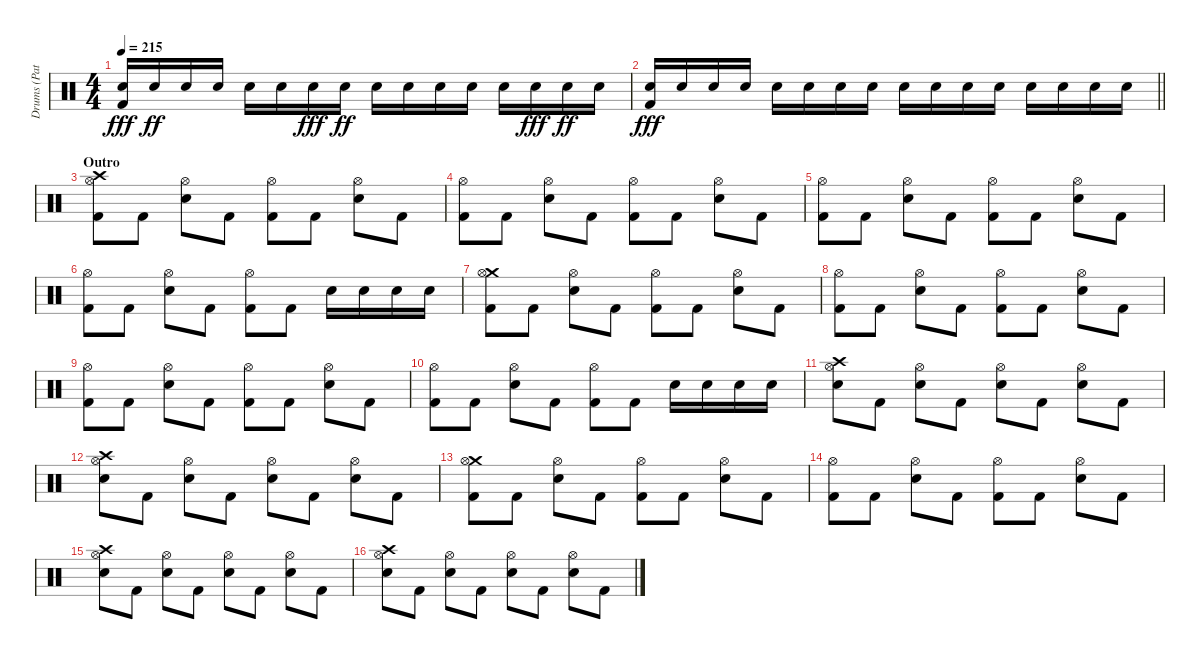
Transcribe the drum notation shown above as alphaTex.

\track ("Drums (Pat Thetic)" "Drums (Pat") {instrument percussion}
\staff {score}
\articulation defaults
\ts (4 4)
\tempo 215
\clef neutral
\ks c
("Snare (hit) 2" "Kick (hit) 2").16{dy fff} "Electric Snare (hit)".16{dy ff} "Electric Snare (hit)".16 "Electric Snare (hit)".16 "Electric Snare (hit)".16 "Electric Snare (hit)".16 "Snare (hit) 2".16{dy fff} "Electric Snare (hit)".16{dy ff} "Electric Snare (hit)".16 "Electric Snare (hit)".16 "Electric Snare (hit)".16 "Electric Snare (hit)".16 "Electric Snare (hit)".16 "Snare (hit) 2".16{dy fff} "Electric Snare (hit)".16{dy ff} "Electric Snare (hit)".16 |
\barLineRight lightlight
("Snare (hit) 2" "Kick (hit) 2").16{dy fff} "Snare (hit) 2".16 "Snare (hit) 2".16 "Snare (hit) 2".16 "Snare (hit) 2".16 "Snare (hit) 2".16 "Electric Snare (hit)".16 "Snare (hit) 2".16 "Snare (hit) 2".16 "Snare (hit) 2".16 "Snare (hit) 2".16 "Snare (hit) 2".16 "Snare (hit) 2".16 "Electric Snare (hit)".16 "Snare (hit) 2".16 "Snare (hit) 2".16 |
\section ("" "Outro")
("Crash high (hit)" "Hi-Hat (open)" "Kick (hit) 2").8 "Kick (hit) 2".8 ("Hi-Hat (open)" "Snare (hit) 2").8 "Kick (hit) 2".8 ("Hi-Hat (open)" "Kick (hit) 2").8 "Kick (hit) 2".8 ("Hi-Hat (open)" "Snare (hit) 2").8 "Kick (hit) 2".8 |
("Hi-Hat (open)" "Kick (hit) 2").8 "Kick (hit) 2".8 ("Hi-Hat (open)" "Snare (hit) 2").8 "Kick (hit) 2".8 ("Hi-Hat (open)" "Kick (hit) 2").8 "Kick (hit) 2".8 ("Hi-Hat (open)" "Snare (hit) 2").8 "Kick (hit) 2".8 |
("Hi-Hat (open)" "Kick (hit) 2").8 "Kick (hit) 2".8 ("Hi-Hat (open)" "Snare (hit) 2").8 "Kick (hit) 2".8 ("Hi-Hat (open)" "Kick (hit) 2").8 "Kick (hit) 2".8 ("Hi-Hat (open)" "Snare (hit) 2").8 "Kick (hit) 2".8 |
("Hi-Hat (open)" "Kick (hit) 2").8 "Kick (hit) 2".8 ("Hi-Hat (open)" "Snare (hit) 2").8 "Kick (hit) 2".8 ("Hi-Hat (open)" "Kick (hit) 2").8 "Kick (hit) 2".8 "Snare (hit) 2".16 "Snare (hit) 2".16 "Snare (hit) 2".16 "Snare (hit) 2".16 |
("Crash medium (hit)" "Hi-Hat (open)" "Kick (hit) 2").8 "Kick (hit) 2".8 ("Hi-Hat (open)" "Snare (hit) 2").8 "Kick (hit) 2".8 ("Hi-Hat (open)" "Kick (hit) 2").8 "Kick (hit) 2".8 ("Hi-Hat (open)" "Snare (hit) 2").8 "Kick (hit) 2".8 |
("Hi-Hat (open)" "Kick (hit) 2").8 "Kick (hit) 2".8 ("Hi-Hat (open)" "Snare (hit) 2").8 "Kick (hit) 2".8 ("Hi-Hat (open)" "Kick (hit) 2").8 "Kick (hit) 2".8 ("Hi-Hat (open)" "Snare (hit) 2").8 "Kick (hit) 2".8 |
("Hi-Hat (open)" "Kick (hit) 2").8 "Kick (hit) 2".8 ("Hi-Hat (open)" "Snare (hit) 2").8 "Kick (hit) 2".8 ("Hi-Hat (open)" "Kick (hit) 2").8 "Kick (hit) 2".8 ("Hi-Hat (open)" "Snare (hit) 2").8 "Kick (hit) 2".8 |
("Hi-Hat (open)" "Kick (hit) 2").8 "Kick (hit) 2".8 ("Hi-Hat (open)" "Snare (hit) 2").8 "Kick (hit) 2".8 ("Hi-Hat (open)" "Kick (hit) 2").8 "Kick (hit) 2".8 "Snare (hit) 2".16 "Snare (hit) 2".16 "Snare (hit) 2".16 "Snare (hit) 2".16 |
("Crash high (hit)" "Hi-Hat (open)" "Snare (hit) 2").8 "Kick (hit) 2".8 ("Hi-Hat (open)" "Snare (hit) 2").8 "Kick (hit) 2".8 ("Hi-Hat (open)" "Snare (hit) 2").8 "Kick (hit) 2".8 ("Hi-Hat (open)" "Snare (hit) 2").8 "Kick (hit) 2".8 |
("Crash high (hit)" "Hi-Hat (open)" "Snare (hit) 2").8 "Kick (hit) 2".8 ("Hi-Hat (open)" "Snare (hit) 2").8 "Kick (hit) 2".8 ("Hi-Hat (open)" "Snare (hit) 2").8 "Kick (hit) 2".8 ("Hi-Hat (open)" "Snare (hit) 2").8 "Kick (hit) 2".8 |
("Crash medium (hit)" "Hi-Hat (open)" "Kick (hit) 2").8 "Kick (hit) 2".8 ("Hi-Hat (open)" "Snare (hit) 2").8 "Kick (hit) 2".8 ("Hi-Hat (open)" "Kick (hit) 2").8 "Kick (hit) 2".8 ("Hi-Hat (open)" "Snare (hit) 2").8 "Kick (hit) 2".8 |
("Hi-Hat (open)" "Kick (hit) 2").8 "Kick (hit) 2".8 ("Hi-Hat (open)" "Snare (hit) 2").8 "Kick (hit) 2".8 ("Hi-Hat (open)" "Kick (hit) 2").8 "Kick (hit) 2".8 ("Hi-Hat (open)" "Snare (hit) 2").8 "Kick (hit) 2".8 |
("Crash high (hit)" "Hi-Hat (open)" "Snare (hit) 2").8 "Kick (hit) 2".8 ("Hi-Hat (open)" "Snare (hit) 2").8 "Kick (hit) 2".8 ("Hi-Hat (open)" "Snare (hit) 2").8 "Kick (hit) 2".8 ("Hi-Hat (open)" "Snare (hit) 2").8 "Kick (hit) 2".8 |
("Crash high (hit)" "Hi-Hat (open)" "Snare (hit) 2").8 "Kick (hit) 2".8 ("Hi-Hat (open)" "Snare (hit) 2").8 "Kick (hit) 2".8 ("Hi-Hat (open)" "Snare (hit) 2").8 "Kick (hit) 2".8 ("Hi-Hat (open)" "Snare (hit) 2").8 "Kick (hit) 2".8
